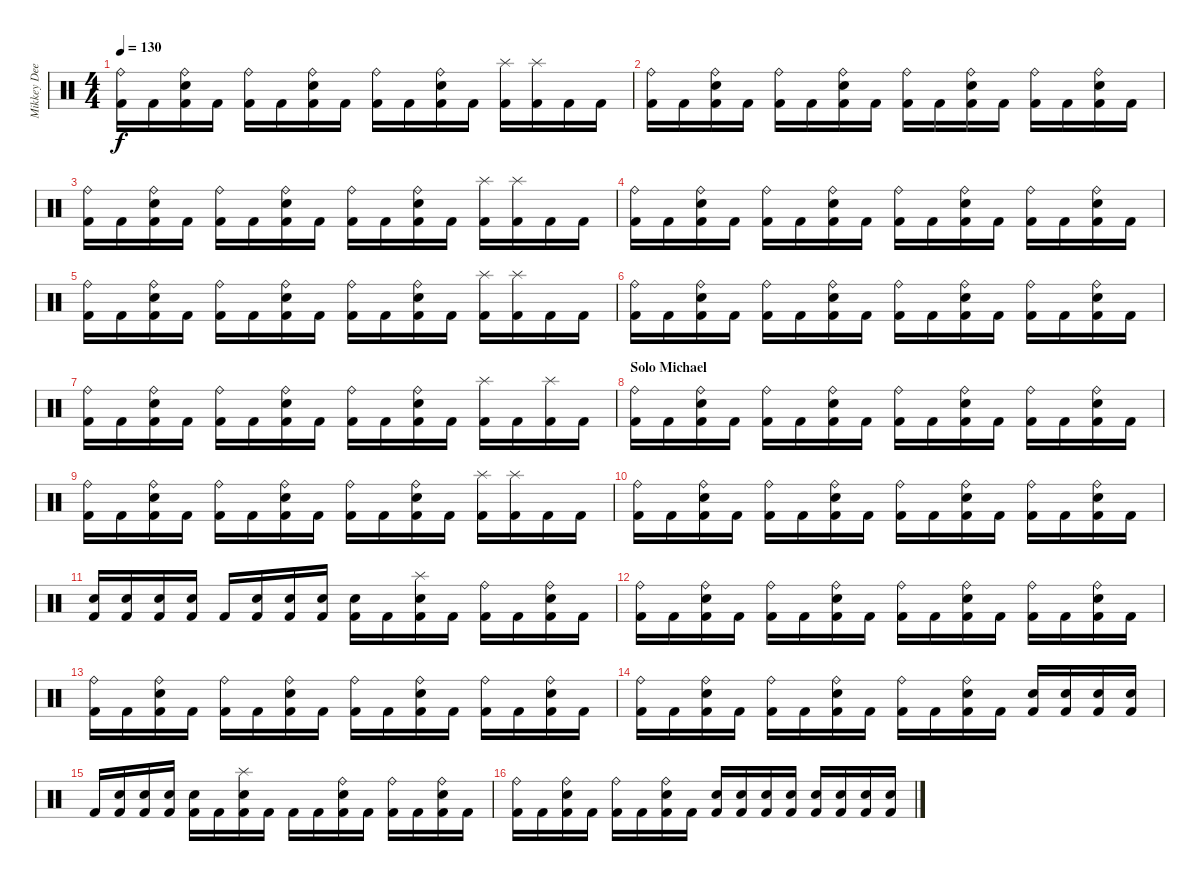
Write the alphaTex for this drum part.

\track ("Mikkey Dee" "Mikkey Dee") {instrument percussion}
\staff {score}
\articulation defaults
\ts (4 4)
\tempo 130
\clef neutral
\ks c
("Ride (bell)" "Kick (hit) 2").16{dy f} "Kick (hit) 2".16 ("Ride (bell)" "Snare (hit) 2" "Kick (hit) 2").16 "Kick (hit) 2".16 ("Ride (bell)" "Kick (hit) 2").16 "Kick (hit) 2".16 ("Ride (bell)" "Snare (hit) 2" "Kick (hit) 2").16 "Kick (hit) 2".16 ("Ride (bell)" "Kick (hit) 2").16 "Kick (hit) 2".16 ("Ride (bell)" "Snare (hit) 2" "Kick (hit) 2").16 "Kick (hit) 2".16 ("Splash (hit)" "Kick (hit) 2").16 ("Splash (hit)" "Kick (hit) 2").16 "Kick (hit) 2".16 "Kick (hit) 2".16 |
("Ride (bell)" "Kick (hit) 2").16 "Kick (hit) 2".16 ("Ride (bell)" "Snare (hit) 2" "Kick (hit) 2").16 "Kick (hit) 2".16 ("Ride (bell)" "Kick (hit) 2").16 "Kick (hit) 2".16 ("Ride (bell)" "Snare (hit) 2" "Kick (hit) 2").16 "Kick (hit) 2".16 ("Ride (bell)" "Kick (hit) 2").16 "Kick (hit) 2".16 ("Ride (bell)" "Snare (hit) 2" "Kick (hit) 2").16 "Kick (hit) 2".16 ("Ride (bell)" "Kick (hit) 2").16 "Kick (hit) 2".16 ("Ride (bell)" "Snare (hit) 2" "Kick (hit) 2").16 "Kick (hit) 2".16 |
("Ride (bell)" "Kick (hit) 2").16 "Kick (hit) 2".16 ("Ride (bell)" "Snare (hit) 2" "Kick (hit) 2").16 "Kick (hit) 2".16 ("Ride (bell)" "Kick (hit) 2").16 "Kick (hit) 2".16 ("Ride (bell)" "Snare (hit) 2" "Kick (hit) 2").16 "Kick (hit) 2".16 ("Ride (bell)" "Kick (hit) 2").16 "Kick (hit) 2".16 ("Ride (bell)" "Snare (hit) 2" "Kick (hit) 2").16 "Kick (hit) 2".16 ("Splash (hit)" "Kick (hit) 2").16 ("Splash (hit)" "Kick (hit) 2").16 "Kick (hit) 2".16 "Kick (hit) 2".16 |
("Ride (bell)" "Kick (hit) 2").16 "Kick (hit) 2".16 ("Ride (bell)" "Snare (hit) 2" "Kick (hit) 2").16 "Kick (hit) 2".16 ("Ride (bell)" "Kick (hit) 2").16 "Kick (hit) 2".16 ("Ride (bell)" "Snare (hit) 2" "Kick (hit) 2").16 "Kick (hit) 2".16 ("Ride (bell)" "Kick (hit) 2").16 "Kick (hit) 2".16 ("Ride (bell)" "Snare (hit) 2" "Kick (hit) 2").16 "Kick (hit) 2".16 ("Ride (bell)" "Kick (hit) 2").16 "Kick (hit) 2".16 ("Ride (bell)" "Snare (hit) 2" "Kick (hit) 2").16 "Kick (hit) 2".16 |
("Ride (bell)" "Kick (hit) 2").16 "Kick (hit) 2".16 ("Ride (bell)" "Snare (hit) 2" "Kick (hit) 2").16 "Kick (hit) 2".16 ("Ride (bell)" "Kick (hit) 2").16 "Kick (hit) 2".16 ("Ride (bell)" "Snare (hit) 2" "Kick (hit) 2").16 "Kick (hit) 2".16 ("Ride (bell)" "Kick (hit) 2").16 "Kick (hit) 2".16 ("Ride (bell)" "Snare (hit) 2" "Kick (hit) 2").16 "Kick (hit) 2".16 ("Splash (hit)" "Kick (hit) 2").16 ("Splash (hit)" "Kick (hit) 2").16 "Kick (hit) 2".16 "Kick (hit) 2".16 |
("Ride (bell)" "Kick (hit) 2").16 "Kick (hit) 2".16 ("Ride (bell)" "Snare (hit) 2" "Kick (hit) 2").16 "Kick (hit) 2".16 ("Ride (bell)" "Kick (hit) 2").16 "Kick (hit) 2".16 ("Ride (bell)" "Snare (hit) 2" "Kick (hit) 2").16 "Kick (hit) 2".16 ("Ride (bell)" "Kick (hit) 2").16 "Kick (hit) 2".16 ("Ride (bell)" "Snare (hit) 2" "Kick (hit) 2").16 "Kick (hit) 2".16 ("Ride (bell)" "Kick (hit) 2").16 "Kick (hit) 2".16 ("Ride (bell)" "Snare (hit) 2" "Kick (hit) 2").16 "Kick (hit) 2".16 |
("Ride (bell)" "Kick (hit) 2").16 "Kick (hit) 2".16 ("Ride (bell)" "Snare (hit) 2" "Kick (hit) 2").16 "Kick (hit) 2".16 ("Ride (bell)" "Kick (hit) 2").16 "Kick (hit) 2".16 ("Ride (bell)" "Snare (hit) 2" "Kick (hit) 2").16 "Kick (hit) 2".16 ("Ride (bell)" "Kick (hit) 2").16 "Kick (hit) 2".16 ("Ride (bell)" "Snare (hit) 2" "Kick (hit) 2").16 "Kick (hit) 2".16 ("Splash (hit)" "Kick (hit) 2").16 "Kick (hit) 2".16 ("Splash (hit)" "Kick (hit) 2").16 "Kick (hit) 2".16 |
\section ("" "Solo Michael")
("Ride (bell)" "Kick (hit) 2").16 "Kick (hit) 2".16 ("Ride (bell)" "Snare (hit) 2" "Kick (hit) 2").16 "Kick (hit) 2".16 ("Ride (bell)" "Kick (hit) 2").16 "Kick (hit) 2".16 ("Ride (bell)" "Snare (hit) 2" "Kick (hit) 2").16 "Kick (hit) 2".16 ("Ride (bell)" "Kick (hit) 2").16 "Kick (hit) 2".16 ("Ride (bell)" "Snare (hit) 2" "Kick (hit) 2").16 "Kick (hit) 2".16 ("Ride (bell)" "Kick (hit) 2").16 "Kick (hit) 2".16 ("Ride (bell)" "Snare (hit) 2" "Kick (hit) 2").16 "Kick (hit) 2".16 |
("Ride (bell)" "Kick (hit) 2").16 "Kick (hit) 2".16 ("Ride (bell)" "Snare (hit) 2" "Kick (hit) 2").16 "Kick (hit) 2".16 ("Ride (bell)" "Kick (hit) 2").16 "Kick (hit) 2".16 ("Ride (bell)" "Snare (hit) 2" "Kick (hit) 2").16 "Kick (hit) 2".16 ("Ride (bell)" "Kick (hit) 2").16 "Kick (hit) 2".16 ("Ride (bell)" "Snare (hit) 2" "Kick (hit) 2").16 "Kick (hit) 2".16 ("Splash (hit)" "Kick (hit) 2").16 ("Splash (hit)" "Kick (hit) 2").16 "Kick (hit) 2".16 "Kick (hit) 2".16 |
("Ride (bell)" "Kick (hit) 2").16 "Kick (hit) 2".16 ("Ride (bell)" "Snare (hit) 2" "Kick (hit) 2").16 "Kick (hit) 2".16 ("Ride (bell)" "Kick (hit) 2").16 "Kick (hit) 2".16 ("Ride (bell)" "Snare (hit) 2" "Kick (hit) 2").16 "Kick (hit) 2".16 ("Ride (bell)" "Kick (hit) 2").16 "Kick (hit) 2".16 ("Ride (bell)" "Snare (hit) 2" "Kick (hit) 2").16 "Kick (hit) 2".16 ("Ride (bell)" "Kick (hit) 2").16 "Kick (hit) 2".16 ("Ride (bell)" "Snare (hit) 2" "Kick (hit) 2").16 "Kick (hit) 2".16 |
("Snare (hit) 2" "Kick (hit) 2").16 ("Snare (hit) 2" "Kick (hit) 2").16 ("Snare (hit) 2" "Kick (hit) 2").16 ("Snare (hit) 2" "Kick (hit) 2").16 "Kick (hit) 2".16 ("Snare (hit) 2" "Kick (hit) 2").16 ("Snare (hit) 2" "Kick (hit) 2").16 ("Snare (hit) 2" "Kick (hit) 2").16 ("Snare (hit) 2" "Kick (hit) 2").16 "Kick (hit) 2".16 ("Splash (hit)" "Snare (hit) 2" "Kick (hit) 2").16 "Kick (hit) 2".16 ("Ride (bell)" "Kick (hit) 2").16 "Kick (hit) 2".16 ("Ride (bell)" "Snare (hit) 2" "Kick (hit) 2").16 "Kick (hit) 2".16 |
("Ride (bell)" "Kick (hit) 2").16 "Kick (hit) 2".16 ("Ride (bell)" "Snare (hit) 2" "Kick (hit) 2").16 "Kick (hit) 2".16 ("Ride (bell)" "Kick (hit) 2").16 "Kick (hit) 2".16 ("Ride (bell)" "Snare (hit) 2" "Kick (hit) 2").16 "Kick (hit) 2".16 ("Ride (bell)" "Kick (hit) 2").16 "Kick (hit) 2".16 ("Ride (bell)" "Snare (hit) 2" "Kick (hit) 2").16 "Kick (hit) 2".16 ("Ride (bell)" "Kick (hit) 2").16 "Kick (hit) 2".16 ("Ride (bell)" "Snare (hit) 2" "Kick (hit) 2").16 "Kick (hit) 2".16 |
("Ride (bell)" "Kick (hit) 2").16 "Kick (hit) 2".16 ("Ride (bell)" "Snare (hit) 2" "Kick (hit) 2").16 "Kick (hit) 2".16 ("Ride (bell)" "Kick (hit) 2").16 "Kick (hit) 2".16 ("Ride (bell)" "Snare (hit) 2" "Kick (hit) 2").16 "Kick (hit) 2".16 ("Ride (bell)" "Kick (hit) 2").16 "Kick (hit) 2".16 ("Ride (bell)" "Snare (hit) 2" "Kick (hit) 2").16 "Kick (hit) 2".16 ("Ride (bell)" "Kick (hit) 2").16 "Kick (hit) 2".16 ("Ride (bell)" "Snare (hit) 2" "Kick (hit) 2").16 "Kick (hit) 2".16 |
("Ride (bell)" "Kick (hit) 2").16 "Kick (hit) 2".16 ("Ride (bell)" "Snare (hit) 2" "Kick (hit) 2").16 "Kick (hit) 2".16 ("Ride (bell)" "Kick (hit) 2").16 "Kick (hit) 2".16 ("Ride (bell)" "Snare (hit) 2" "Kick (hit) 2").16 "Kick (hit) 2".16 ("Ride (bell)" "Kick (hit) 2").16 "Kick (hit) 2".16 ("Ride (bell)" "Snare (hit) 2" "Kick (hit) 2").16 "Kick (hit) 2".16 ("Snare (hit) 2" "Kick (hit) 2").16 ("Snare (hit) 2" "Kick (hit) 2").16 ("Snare (hit) 2" "Kick (hit) 2").16 ("Snare (hit) 2" "Kick (hit) 2").16 |
"Kick (hit) 2".16 ("Snare (hit) 2" "Kick (hit) 2").16 ("Snare (hit) 2" "Kick (hit) 2").16 ("Snare (hit) 2" "Kick (hit) 2").16 ("Snare (hit) 2" "Kick (hit) 2").16 "Kick (hit) 2".16 ("Splash (hit)" "Snare (hit) 2" "Kick (hit) 2").16 "Kick (hit) 2".16 "Kick (hit) 2".16 "Kick (hit) 2".16 ("Ride (bell)" "Snare (hit) 2" "Kick (hit) 2").16 "Kick (hit) 2".16 ("Ride (bell)" "Kick (hit) 2").16 "Kick (hit) 2".16 ("Ride (bell)" "Snare (hit) 2" "Kick (hit) 2").16 "Kick (hit) 2".16 |
("Ride (bell)" "Kick (hit) 2").16 "Kick (hit) 2".16 ("Ride (bell)" "Snare (hit) 2" "Kick (hit) 2").16 "Kick (hit) 2".16 ("Ride (bell)" "Kick (hit) 2").16 "Kick (hit) 2".16 ("Ride (bell)" "Snare (hit) 2" "Kick (hit) 2").16 "Kick (hit) 2".16 ("Snare (hit) 2" "Kick (hit) 2").16 ("Snare (hit) 2" "Kick (hit) 2").16 ("Snare (hit) 2" "Kick (hit) 2").16 ("Snare (hit) 2" "Kick (hit) 2").16 ("Snare (hit) 2" "Kick (hit) 2").16 ("Snare (hit) 2" "Kick (hit) 2").16 ("Snare (hit) 2" "Kick (hit) 2").16 ("Snare (hit) 2" "Kick (hit) 2").16
